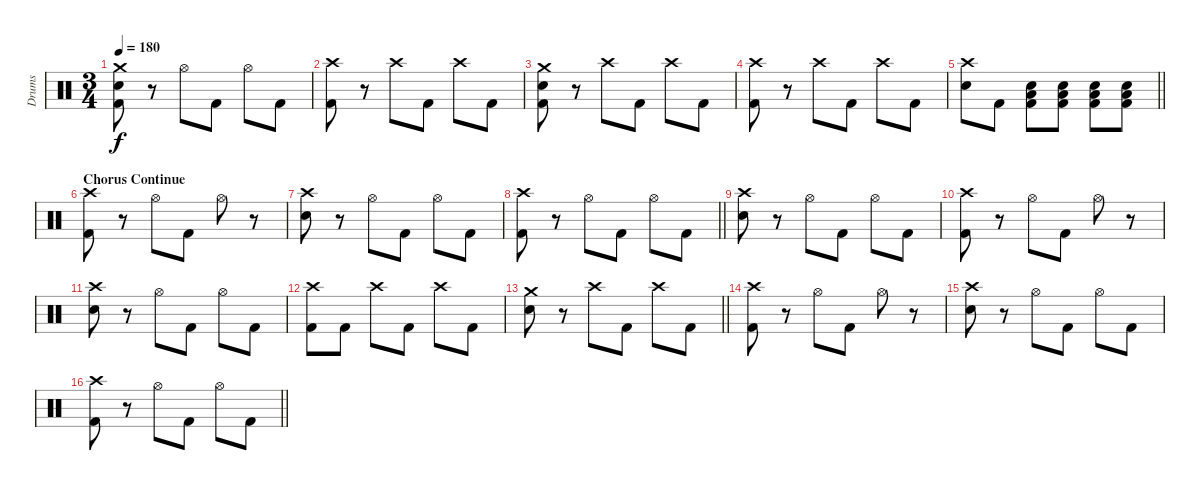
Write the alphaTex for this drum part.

\track ("Drums" "Drums") {instrument percussion}
\staff {score}
\articulation defaults
\ts (3 4)
\tempo 180
\clef neutral
\ks c
("Crash medium (hit)" "Electric Snare (hit)" "Kick (hit) 2").8{dy f} r.8 "Hi-Hat (open)".8 "Kick (hit) 2".8 "Hi-Hat (open)".8 "Kick (hit) 2".8 |
("Crash high (hit)" "Kick (hit) 2").8 r.8 "Crash high (hit)".8 "Kick (hit) 2".8 "Crash high (hit)".8 "Kick (hit) 2".8 |
("Crash medium (hit)" "Electric Snare (hit)" "Kick (hit) 2").8 r.8 "Crash high (hit)".8 "Kick (hit) 2".8 "Crash high (hit)".8 "Kick (hit) 2".8 |
("Crash high (hit)" "Kick (hit) 2").8 r.8 "Crash high (hit)".8 "Kick (hit) 2".8 "Crash high (hit)".8 "Kick (hit) 2".8 |
\barLineRight lightlight
("Crash high (hit)" "Electric Snare (hit)").8 "Kick (hit) 2".8 ("Electric Snare (hit)" "Low Floor Tom (hit)" "Kick (hit) 2").8 ("Electric Snare (hit)" "Low Floor Tom (hit)" "Kick (hit) 2").8 ("Electric Snare (hit)" "Low Floor Tom (hit)" "Kick (hit) 2").8 ("Electric Snare (hit)" "Low Floor Tom (hit)" "Kick (hit) 2").8 |
\section ("" "Chorus Continue")
("Crash high (hit)" "Kick (hit) 2").8 r.8 "Hi-Hat (open)".8 "Kick (hit) 2".8 "Hi-Hat (open)".8 r.8 |
("Crash high (hit)" "Electric Snare (hit)").8 r.8 "Hi-Hat (open)".8 "Kick (hit) 2".8 "Hi-Hat (open)".8 "Kick (hit) 2".8 |
\barLineRight lightlight
("Crash high (hit)" "Kick (hit) 2").8 r.8 "Hi-Hat (open)".8 "Kick (hit) 2".8 "Hi-Hat (open)".8 "Kick (hit) 2".8 |
("Crash high (hit)" "Electric Snare (hit)").8 r.8 "Hi-Hat (open)".8 "Kick (hit) 2".8 "Hi-Hat (open)".8 "Kick (hit) 2".8 |
("Crash high (hit)" "Kick (hit) 2").8 r.8 "Hi-Hat (open)".8 "Kick (hit) 2".8 "Hi-Hat (open)".8 r.8 |
("Crash high (hit)" "Electric Snare (hit)").8 r.8 "Hi-Hat (open)".8 "Kick (hit) 2".8 "Hi-Hat (open)".8 "Kick (hit) 2".8 |
("Crash high (hit)" "Kick (hit) 2").8 "Kick (hit) 2".8 "Crash high (hit)".8 "Kick (hit) 2".8 "Crash high (hit)".8 "Kick (hit) 2".8 |
\barLineRight lightlight
("Crash medium (hit)" "Electric Snare (hit)").8 r.8 "Crash high (hit)".8 "Kick (hit) 2".8 "Crash high (hit)".8 "Kick (hit) 2".8 |
("Crash high (hit)" "Kick (hit) 2").8 r.8 "Hi-Hat (open)".8 "Kick (hit) 2".8 "Hi-Hat (open)".8 r.8 |
("Crash high (hit)" "Electric Snare (hit)").8 r.8 "Hi-Hat (open)".8 "Kick (hit) 2".8 "Hi-Hat (open)".8 "Kick (hit) 2".8 |
\barLineRight lightlight
("Crash high (hit)" "Kick (hit) 2").8 r.8 "Hi-Hat (open)".8 "Kick (hit) 2".8 "Hi-Hat (open)".8 "Kick (hit) 2".8
